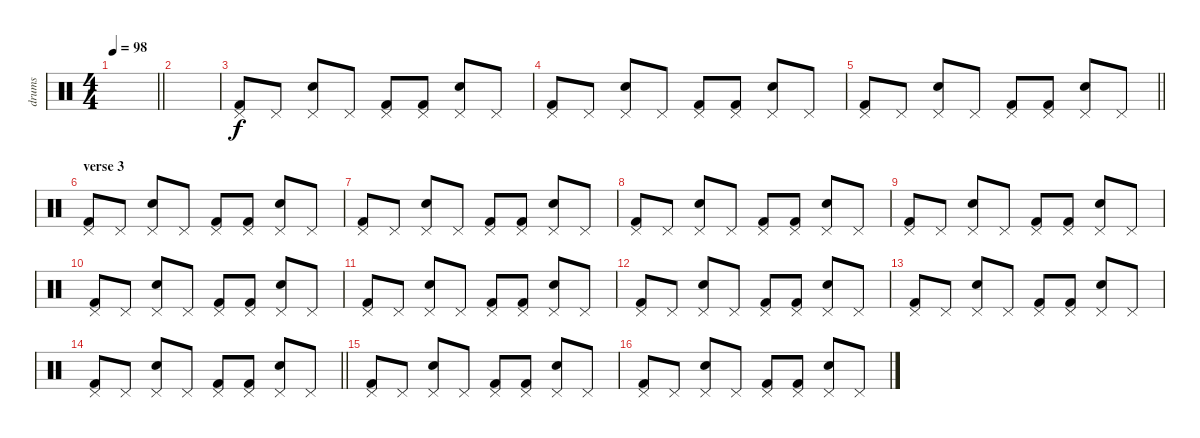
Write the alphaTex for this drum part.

\track ("drums" "drums") {instrument percussion}
\staff {score}
\articulation defaults
\ts (4 4)
\tempo 98
\clef neutral
\barLineRight lightlight
\ks c
|
|
("Kick (hit) 2" "Pedal Hi-Hat (hit)").8 "Pedal Hi-Hat (hit)".8 ("Electric Snare (hit)" "Pedal Hi-Hat (hit)").8 "Pedal Hi-Hat (hit)".8 ("Kick (hit) 2" "Pedal Hi-Hat (hit)").8 ("Kick (hit) 2" "Pedal Hi-Hat (hit)").8 ("Electric Snare (hit)" "Pedal Hi-Hat (hit)").8 "Pedal Hi-Hat (hit)".8 |
("Kick (hit) 2" "Pedal Hi-Hat (hit)").8 "Pedal Hi-Hat (hit)".8 ("Electric Snare (hit)" "Pedal Hi-Hat (hit)").8 "Pedal Hi-Hat (hit)".8 ("Kick (hit) 2" "Pedal Hi-Hat (hit)").8 ("Kick (hit) 2" "Pedal Hi-Hat (hit)").8 ("Electric Snare (hit)" "Pedal Hi-Hat (hit)").8 "Pedal Hi-Hat (hit)".8 |
\barLineRight lightlight
("Kick (hit) 2" "Pedal Hi-Hat (hit)").8 "Pedal Hi-Hat (hit)".8 ("Electric Snare (hit)" "Pedal Hi-Hat (hit)").8 "Pedal Hi-Hat (hit)".8 ("Kick (hit) 2" "Pedal Hi-Hat (hit)").8 ("Kick (hit) 2" "Pedal Hi-Hat (hit)").8 ("Electric Snare (hit)" "Pedal Hi-Hat (hit)").8 "Pedal Hi-Hat (hit)".8 |
\section ("" "verse 3")
("Kick (hit) 2" "Pedal Hi-Hat (hit)").8 "Pedal Hi-Hat (hit)".8 ("Electric Snare (hit)" "Pedal Hi-Hat (hit)").8 "Pedal Hi-Hat (hit)".8 ("Kick (hit) 2" "Pedal Hi-Hat (hit)").8 ("Kick (hit) 2" "Pedal Hi-Hat (hit)").8 ("Electric Snare (hit)" "Pedal Hi-Hat (hit)").8 "Pedal Hi-Hat (hit)".8 |
("Kick (hit) 2" "Pedal Hi-Hat (hit)").8 "Pedal Hi-Hat (hit)".8 ("Electric Snare (hit)" "Pedal Hi-Hat (hit)").8 "Pedal Hi-Hat (hit)".8 ("Kick (hit) 2" "Pedal Hi-Hat (hit)").8 ("Kick (hit) 2" "Pedal Hi-Hat (hit)").8 ("Electric Snare (hit)" "Pedal Hi-Hat (hit)").8 "Pedal Hi-Hat (hit)".8 |
("Kick (hit) 2" "Pedal Hi-Hat (hit)").8 "Pedal Hi-Hat (hit)".8 ("Electric Snare (hit)" "Pedal Hi-Hat (hit)").8 "Pedal Hi-Hat (hit)".8 ("Kick (hit) 2" "Pedal Hi-Hat (hit)").8 ("Kick (hit) 2" "Pedal Hi-Hat (hit)").8 ("Electric Snare (hit)" "Pedal Hi-Hat (hit)").8 "Pedal Hi-Hat (hit)".8 |
("Kick (hit) 2" "Pedal Hi-Hat (hit)").8 "Pedal Hi-Hat (hit)".8 ("Electric Snare (hit)" "Pedal Hi-Hat (hit)").8 "Pedal Hi-Hat (hit)".8 ("Kick (hit) 2" "Pedal Hi-Hat (hit)").8 ("Kick (hit) 2" "Pedal Hi-Hat (hit)").8 ("Electric Snare (hit)" "Pedal Hi-Hat (hit)").8 "Pedal Hi-Hat (hit)".8 |
("Kick (hit) 2" "Pedal Hi-Hat (hit)").8 "Pedal Hi-Hat (hit)".8 ("Electric Snare (hit)" "Pedal Hi-Hat (hit)").8 "Pedal Hi-Hat (hit)".8 ("Kick (hit) 2" "Pedal Hi-Hat (hit)").8 ("Kick (hit) 2" "Pedal Hi-Hat (hit)").8 ("Electric Snare (hit)" "Pedal Hi-Hat (hit)").8 "Pedal Hi-Hat (hit)".8 |
("Kick (hit) 2" "Pedal Hi-Hat (hit)").8 "Pedal Hi-Hat (hit)".8 ("Electric Snare (hit)" "Pedal Hi-Hat (hit)").8 "Pedal Hi-Hat (hit)".8 ("Kick (hit) 2" "Pedal Hi-Hat (hit)").8 ("Kick (hit) 2" "Pedal Hi-Hat (hit)").8 ("Electric Snare (hit)" "Pedal Hi-Hat (hit)").8 "Pedal Hi-Hat (hit)".8 |
("Kick (hit) 2" "Pedal Hi-Hat (hit)").8 "Pedal Hi-Hat (hit)".8 ("Electric Snare (hit)" "Pedal Hi-Hat (hit)").8 "Pedal Hi-Hat (hit)".8 ("Kick (hit) 2" "Pedal Hi-Hat (hit)").8 ("Kick (hit) 2" "Pedal Hi-Hat (hit)").8 ("Electric Snare (hit)" "Pedal Hi-Hat (hit)").8 "Pedal Hi-Hat (hit)".8 |
("Kick (hit) 2" "Pedal Hi-Hat (hit)").8 "Pedal Hi-Hat (hit)".8 ("Electric Snare (hit)" "Pedal Hi-Hat (hit)").8 "Pedal Hi-Hat (hit)".8 ("Kick (hit) 2" "Pedal Hi-Hat (hit)").8 ("Kick (hit) 2" "Pedal Hi-Hat (hit)").8 ("Electric Snare (hit)" "Pedal Hi-Hat (hit)").8 "Pedal Hi-Hat (hit)".8 |
\barLineRight lightlight
("Kick (hit) 2" "Pedal Hi-Hat (hit)").8 "Pedal Hi-Hat (hit)".8 ("Electric Snare (hit)" "Pedal Hi-Hat (hit)").8 "Pedal Hi-Hat (hit)".8 ("Kick (hit) 2" "Pedal Hi-Hat (hit)").8 ("Kick (hit) 2" "Pedal Hi-Hat (hit)").8 ("Electric Snare (hit)" "Pedal Hi-Hat (hit)").8 "Pedal Hi-Hat (hit)".8 |
("Kick (hit) 2" "Pedal Hi-Hat (hit)").8 "Pedal Hi-Hat (hit)".8 ("Electric Snare (hit)" "Pedal Hi-Hat (hit)").8 "Pedal Hi-Hat (hit)".8 ("Kick (hit) 2" "Pedal Hi-Hat (hit)").8 ("Kick (hit) 2" "Pedal Hi-Hat (hit)").8 ("Electric Snare (hit)" "Pedal Hi-Hat (hit)").8 "Pedal Hi-Hat (hit)".8 |
("Kick (hit) 2" "Pedal Hi-Hat (hit)").8 "Pedal Hi-Hat (hit)".8 ("Electric Snare (hit)" "Pedal Hi-Hat (hit)").8 "Pedal Hi-Hat (hit)".8 ("Kick (hit) 2" "Pedal Hi-Hat (hit)").8 ("Kick (hit) 2" "Pedal Hi-Hat (hit)").8 ("Electric Snare (hit)" "Pedal Hi-Hat (hit)").8 "Pedal Hi-Hat (hit)".8
